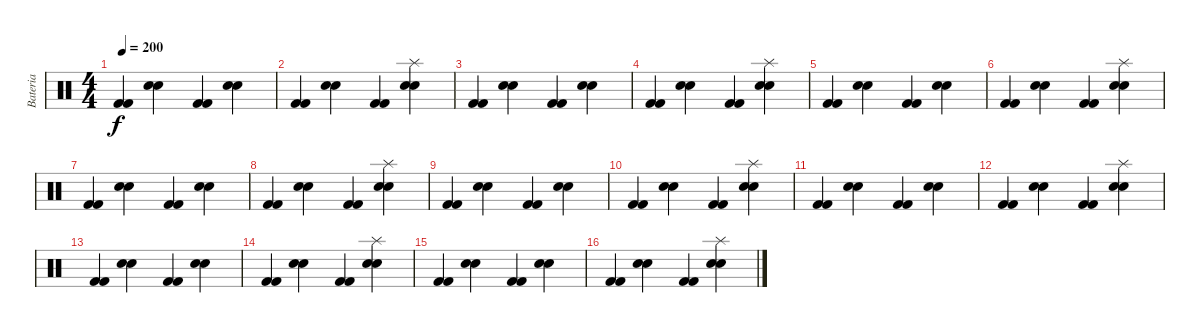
\track ("Bateria" "Bateria") {instrument percussion}
\staff {score}
\articulation defaults
\ts (4 4)
\tempo 200
\clef neutral
\ks c
("Kick (hit) 2" "Kick (hit) 2").4{dy f} ("Snare (hit) 2" "Snare (hit) 2").4 ("Kick (hit) 2" "Kick (hit) 2").4 ("Snare (hit) 2" "Snare (hit) 2").4 |
("Kick (hit) 2" "Kick (hit) 2").4 ("Snare (hit) 2" "Snare (hit) 2").4 ("Kick (hit) 2" "Kick (hit) 2").4 ("Splash (hit)" "Snare (hit) 2" "Snare (hit) 2").4 |
("Kick (hit) 2" "Kick (hit) 2").4 ("Snare (hit) 2" "Snare (hit) 2").4 ("Kick (hit) 2" "Kick (hit) 2").4 ("Snare (hit) 2" "Snare (hit) 2").4 |
("Kick (hit) 2" "Kick (hit) 2").4 ("Snare (hit) 2" "Snare (hit) 2").4 ("Kick (hit) 2" "Kick (hit) 2").4 ("Splash (hit)" "Snare (hit) 2" "Snare (hit) 2").4 |
("Kick (hit) 2" "Kick (hit) 2").4 ("Snare (hit) 2" "Snare (hit) 2").4 ("Kick (hit) 2" "Kick (hit) 2").4 ("Snare (hit) 2" "Snare (hit) 2").4 |
("Kick (hit) 2" "Kick (hit) 2").4 ("Snare (hit) 2" "Snare (hit) 2").4 ("Kick (hit) 2" "Kick (hit) 2").4 ("Splash (hit)" "Snare (hit) 2" "Snare (hit) 2").4 |
("Kick (hit) 2" "Kick (hit) 2").4 ("Snare (hit) 2" "Snare (hit) 2").4 ("Kick (hit) 2" "Kick (hit) 2").4 ("Snare (hit) 2" "Snare (hit) 2").4 |
("Kick (hit) 2" "Kick (hit) 2").4 ("Snare (hit) 2" "Snare (hit) 2").4 ("Kick (hit) 2" "Kick (hit) 2").4 ("Splash (hit)" "Snare (hit) 2" "Snare (hit) 2").4 |
("Kick (hit) 2" "Kick (hit) 2").4 ("Snare (hit) 2" "Snare (hit) 2").4 ("Kick (hit) 2" "Kick (hit) 2").4 ("Snare (hit) 2" "Snare (hit) 2").4 |
("Kick (hit) 2" "Kick (hit) 2").4 ("Snare (hit) 2" "Snare (hit) 2").4 ("Kick (hit) 2" "Kick (hit) 2").4 ("Splash (hit)" "Snare (hit) 2" "Snare (hit) 2").4 |
("Kick (hit) 2" "Kick (hit) 2").4 ("Snare (hit) 2" "Snare (hit) 2").4 ("Kick (hit) 2" "Kick (hit) 2").4 ("Snare (hit) 2" "Snare (hit) 2").4 |
("Kick (hit) 2" "Kick (hit) 2").4 ("Snare (hit) 2" "Snare (hit) 2").4 ("Kick (hit) 2" "Kick (hit) 2").4 ("Splash (hit)" "Snare (hit) 2" "Snare (hit) 2").4 |
("Kick (hit) 2" "Kick (hit) 2").4 ("Snare (hit) 2" "Snare (hit) 2").4 ("Kick (hit) 2" "Kick (hit) 2").4 ("Snare (hit) 2" "Snare (hit) 2").4 |
("Kick (hit) 2" "Kick (hit) 2").4 ("Snare (hit) 2" "Snare (hit) 2").4 ("Kick (hit) 2" "Kick (hit) 2").4 ("Splash (hit)" "Snare (hit) 2" "Snare (hit) 2").4 |
("Kick (hit) 2" "Kick (hit) 2").4 ("Snare (hit) 2" "Snare (hit) 2").4 ("Kick (hit) 2" "Kick (hit) 2").4 ("Snare (hit) 2" "Snare (hit) 2").4 |
("Kick (hit) 2" "Kick (hit) 2").4 ("Snare (hit) 2" "Snare (hit) 2").4 ("Kick (hit) 2" "Kick (hit) 2").4 ("Splash (hit)" "Snare (hit) 2" "Snare (hit) 2").4
